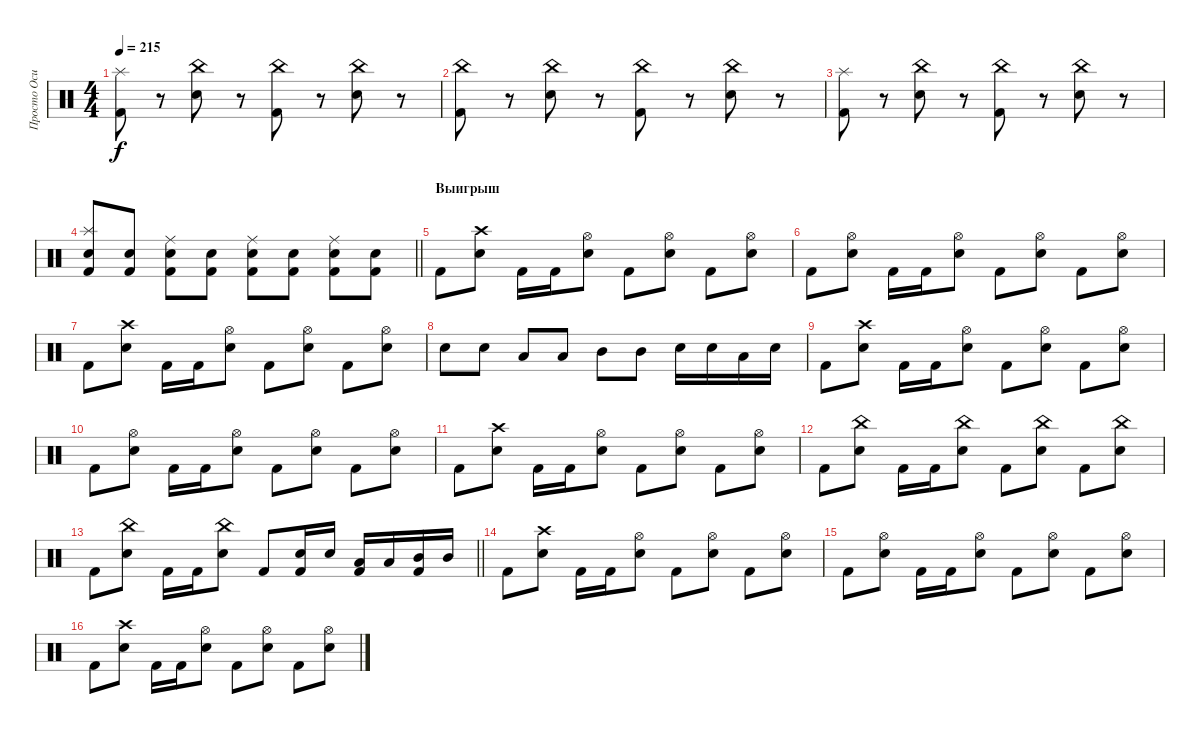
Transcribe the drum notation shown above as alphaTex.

\track ("Просто Осип" "Просто Оси") {instrument percussion}
\staff {score}
\articulation defaults
\ts (4 4)
\tempo 215
\clef neutral
\ks c
("Kick (hit) 2" "Splash (hit)").8{dy f} r.8 ("Electric Snare (hit)" "China (hit)").8 r.8 ("Kick (hit) 2" "China (hit)").8 r.8 ("Electric Snare (hit)" "China (hit)").8 r.8 |
("Kick (hit) 2" "China (hit)").8 r.8 ("Electric Snare (hit)" "China (hit)").8 r.8 ("Kick (hit) 2" "China (hit)").8 r.8 ("Electric Snare (hit)" "China (hit)").8 r.8 |
("Kick (hit) 2" "Splash (hit)").8 r.8 ("Electric Snare (hit)" "China (hit)").8 r.8 ("Kick (hit) 2" "China (hit)").8 r.8 ("Electric Snare (hit)" "China (hit)").8 r.8 |
\barLineRight lightlight
("Kick (hit) 2" "Electric Snare (hit)" "Splash (hit)").8 ("Kick (hit) 2" "Electric Snare (hit)").8 ("Kick (hit) 2" "Electric Snare (hit)" "Ride (middle)").8 ("Kick (hit) 2" "Electric Snare (hit)").8 ("Kick (hit) 2" "Electric Snare (hit)" "Ride (middle)").8 ("Kick (hit) 2" "Electric Snare (hit)").8 ("Kick (hit) 2" "Electric Snare (hit)" "Ride (middle)").8 ("Kick (hit) 2" "Electric Snare (hit)").8 |
\section ("" "Выигрыш")
"Kick (hit) 2".8 ("Electric Snare (hit)" "Crash high (hit)").8 "Kick (hit) 2".16 "Kick (hit) 2".16 ("Electric Snare (hit)" "Hi-Hat (open)").8 "Kick (hit) 2".8 ("Electric Snare (hit)" "Hi-Hat (open)").8 "Kick (hit) 2".8 ("Electric Snare (hit)" "Hi-Hat (open)").8 |
"Kick (hit) 2".8 ("Electric Snare (hit)" "Hi-Hat (open)").8 "Kick (hit) 2".16 "Kick (hit) 2".16 ("Electric Snare (hit)" "Hi-Hat (open)").8 "Kick (hit) 2".8 ("Electric Snare (hit)" "Hi-Hat (open)").8 "Kick (hit) 2".8 ("Electric Snare (hit)" "Hi-Hat (open)").8 |
"Kick (hit) 2".8 ("Electric Snare (hit)" "Crash high (hit)").8 "Kick (hit) 2".16 "Kick (hit) 2".16 ("Electric Snare (hit)" "Hi-Hat (open)").8 "Kick (hit) 2".8 ("Electric Snare (hit)" "Hi-Hat (open)").8 "Kick (hit) 2".8 ("Electric Snare (hit)" "Hi-Hat (open)").8 |
"Electric Snare (hit)".8 "Electric Snare (hit)".8 "Low Tom (hit)".8 "Low Tom (hit)".8 "Mid Tom (hit)".8 "Mid Tom (hit)".8 "Electric Snare (hit)".16 "Electric Snare (hit)".16 "Low Tom (hit)".16 "Electric Snare (hit)".16 |
"Kick (hit) 2".8 ("Electric Snare (hit)" "Crash high (hit)").8 "Kick (hit) 2".16 "Kick (hit) 2".16 ("Electric Snare (hit)" "Hi-Hat (open)").8 "Kick (hit) 2".8 ("Electric Snare (hit)" "Hi-Hat (open)").8 "Kick (hit) 2".8 ("Electric Snare (hit)" "Hi-Hat (open)").8 |
"Kick (hit) 2".8 ("Electric Snare (hit)" "Hi-Hat (open)").8 "Kick (hit) 2".16 "Kick (hit) 2".16 ("Electric Snare (hit)" "Hi-Hat (open)").8 "Kick (hit) 2".8 ("Electric Snare (hit)" "Hi-Hat (open)").8 "Kick (hit) 2".8 ("Electric Snare (hit)" "Hi-Hat (open)").8 |
"Kick (hit) 2".8 ("Electric Snare (hit)" "Crash high (hit)").8 "Kick (hit) 2".16 "Kick (hit) 2".16 ("Electric Snare (hit)" "Hi-Hat (open)").8 "Kick (hit) 2".8 ("Electric Snare (hit)" "Hi-Hat (open)").8 "Kick (hit) 2".8 ("Electric Snare (hit)" "Hi-Hat (open)").8 |
"Kick (hit) 2".8 ("Electric Snare (hit)" "China (hit)").8 "Kick (hit) 2".16 "Kick (hit) 2".16 ("Electric Snare (hit)" "China (hit)").8 "Kick (hit) 2".8 ("Electric Snare (hit)" "China (hit)").8 "Kick (hit) 2".8 ("Electric Snare (hit)" "China (hit)").8 |
\barLineRight lightlight "Kick (hit) 2".8
("Electric Snare (hit)" "China (hit)").8 "Kick (hit) 2".16 "Kick (hit) 2".16 ("Electric Snare (hit)" "China (hit)").8 "Kick (hit) 2".8 ("Kick (hit) 2" "Electric Snare (hit)").16 "Electric Snare (hit)".16 ("Kick (hit) 2" "Low Tom (hit)").16 "Low Tom (hit)".16 ("Kick (hit) 2" "Mid Tom (hit)").16 "Mid Tom (hit)".16 |
"Kick (hit) 2".8 ("Electric Snare (hit)" "Crash high (hit)").8 "Kick (hit) 2".16 "Kick (hit) 2".16 ("Electric Snare (hit)" "Hi-Hat (open)").8 "Kick (hit) 2".8 ("Electric Snare (hit)" "Hi-Hat (open)").8 "Kick (hit) 2".8 ("Electric Snare (hit)" "Hi-Hat (open)").8 |
"Kick (hit) 2".8 ("Electric Snare (hit)" "Hi-Hat (open)").8 "Kick (hit) 2".16 "Kick (hit) 2".16 ("Electric Snare (hit)" "Hi-Hat (open)").8 "Kick (hit) 2".8 ("Electric Snare (hit)" "Hi-Hat (open)").8 "Kick (hit) 2".8 ("Electric Snare (hit)" "Hi-Hat (open)").8 |
"Kick (hit) 2".8 ("Electric Snare (hit)" "Crash high (hit)").8 "Kick (hit) 2".16 "Kick (hit) 2".16 ("Electric Snare (hit)" "Hi-Hat (open)").8 "Kick (hit) 2".8 ("Electric Snare (hit)" "Hi-Hat (open)").8 "Kick (hit) 2".8 ("Electric Snare (hit)" "Hi-Hat (open)").8
